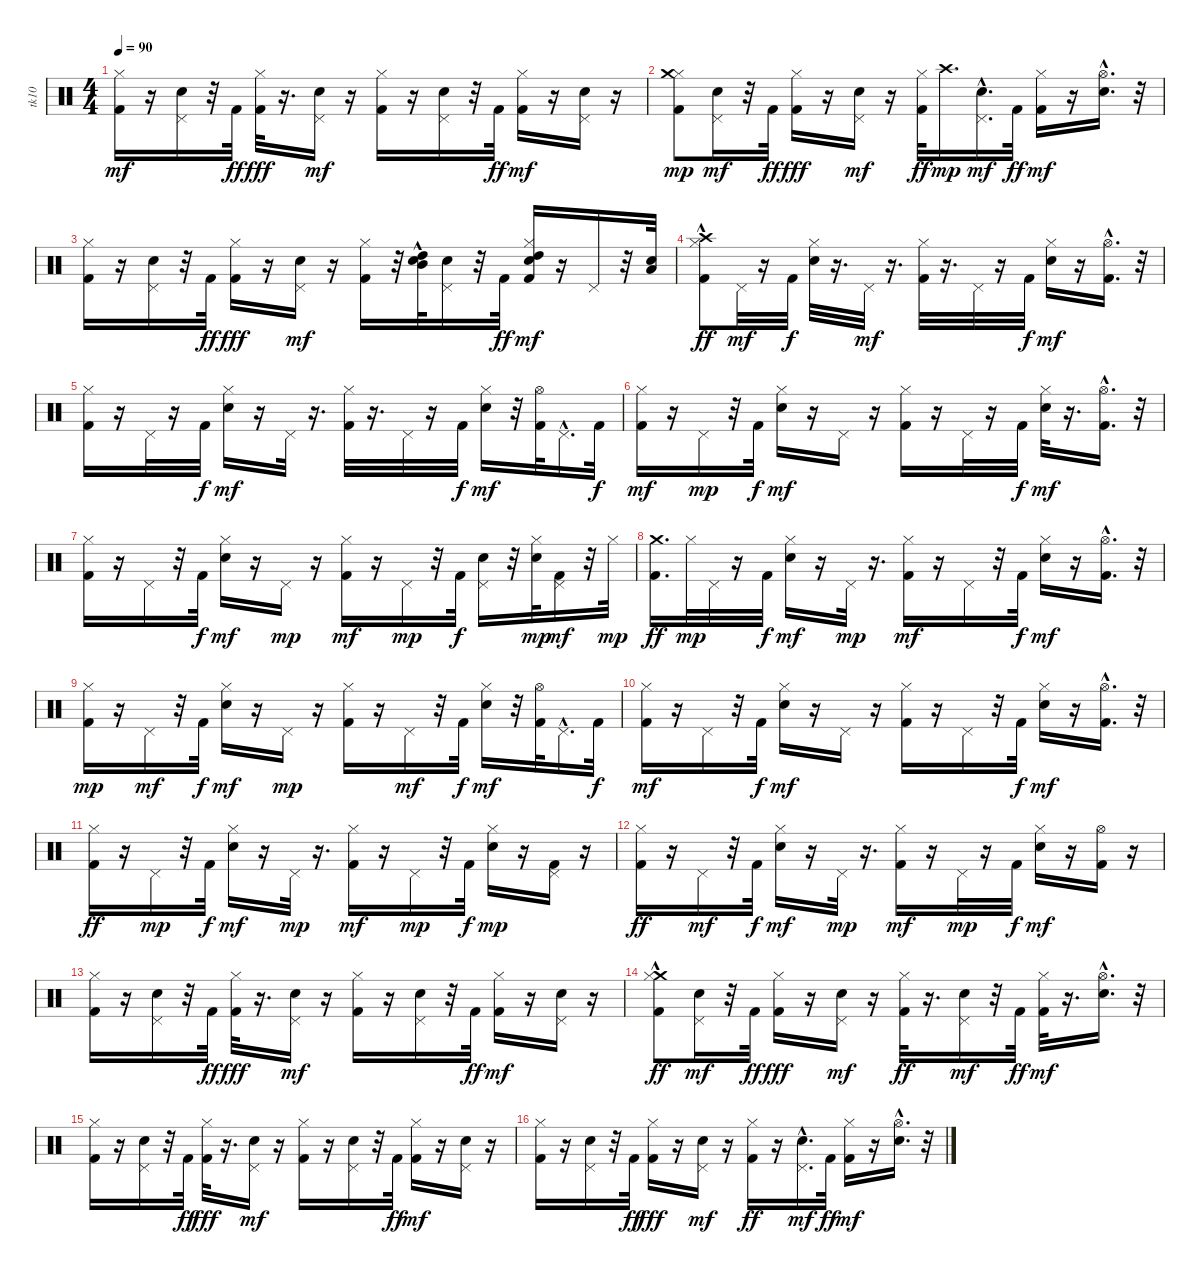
\track ("tk10" "tk10") {instrument percussion}
\staff {score}
\articulation defaults
\ts (4 4)
\tempo 90
\clef neutral
\ks c
("Kick (hit) 2" "Hi-Hat (closed)").16{dy mf} r.16 ("Electric Snare (hit)" "Pedal Hi-Hat (hit)").16 r.32 "Kick (hit) 2".32{dy ff} ("Hi-Hat (closed)" "Kick (hit) 2").32{dy fff} r.16{d} ("Electric Snare (hit)" "Pedal Hi-Hat (hit)").16{dy mf} r.16 ("Kick (hit) 2" "Hi-Hat (closed)").16 r.16 ("Electric Snare (hit)" "Pedal Hi-Hat (hit)").16 r.32 "Kick (hit) 2".32{dy ff} ("Kick (hit) 2" "Hi-Hat (closed)").16{dy mf} r.16 ("Electric Snare (hit)" "Pedal Hi-Hat (hit)").16 r.16 |
("Kick (hit) 2" "Hi-Hat (closed)" "Crash medium (hit)").8{dy mp} ("Electric Snare (hit)" "Pedal Hi-Hat (hit)").16{dy mf} r.32 "Kick (hit) 2".32{dy ff} ("Hi-Hat (closed)" "Kick (hit) 2").16{dy fff} r.16 ("Electric Snare (hit)" "Pedal Hi-Hat (hit)").16{dy mf} r.16 ("Hi-Hat (closed)" "Kick (hit) 2").32{dy ff} "Crash high (hit)".16{d dy mp} ("Electric Snare (hit)"{hac} "Pedal Hi-Hat (hit)").16{d dy mf} "Kick (hit) 2".32{dy ff} ("Kick (hit) 2" "Hi-Hat (closed)").16{dy mf} r.16 ("Electric Snare (hit)"{hac} "Hi-Hat (open)"{hac}).16{d} r.32 |
("Kick (hit) 2" "Hi-Hat (closed)").16 r.16 ("Pedal Hi-Hat (hit)" "Electric Snare (hit)").16 r.32 "Kick (hit) 2".32{dy ff} ("Hi-Hat (closed)" "Kick (hit) 2").16{dy fff} r.16 ("Electric Snare (hit)" "Pedal Hi-Hat (hit)").16{dy mf} r.16 ("Kick (hit) 2" "Hi-Hat (closed)").16 r.32 ("High Tom (hit)" "Mid Tom (hit)"{hac} "Electric Snare (hit)").32 ("Electric Snare (hit)" "Pedal Hi-Hat (hit)").16 r.32 "Kick (hit) 2".32{dy ff} ("Kick (hit) 2" "Electric Snare (hit)" "Hi-Hat (closed)" "High Tom (hit)").16{dy mf} r.16 "Pedal Hi-Hat (hit)".16 r.32 ("Low Tom (hit)" "Electric Snare (hit)").32 |
("Crash high (hit)"{hac} "Kick (hit) 2" "Hi-Hat (closed)").8{dy ff} "Pedal Hi-Hat (hit)".32{dy mf} r.16 "Kick (hit) 2".32{dy f} ("Electric Snare (hit)" "Hi-Hat (closed)").32 r.16{d} "Pedal Hi-Hat (hit)".32{dy mf} r.16{d} ("Kick (hit) 2" "Hi-Hat (closed)").32 r.16{d} "Pedal Hi-Hat (hit)".32 r.16 "Kick (hit) 2".32{dy f} ("Electric Snare (hit)" "Hi-Hat (closed)").16{dy mf} r.16 ("Kick (hit) 2" "Hi-Hat (open)"{hac}).16{d} r.32 |
("Hi-Hat (closed)" "Kick (hit) 2").16 r.16 "Pedal Hi-Hat (hit)".32 r.16 "Kick (hit) 2".32{dy f} ("Electric Snare (hit)" "Hi-Hat (closed)").16{dy mf} r.16 "Pedal Hi-Hat (hit)".32 r.16{d} ("Kick (hit) 2" "Hi-Hat (closed)").32 r.16{d} "Pedal Hi-Hat (hit)".32 r.16 "Kick (hit) 2".32{dy f} ("Electric Snare (hit)" "Hi-Hat (closed)").16{dy mf} r.32 ("Kick (hit) 2" "Hi-Hat (open)").32 "Pedal Hi-Hat (hit)"{hac}.16{d} "Kick (hit) 2".32{dy f} |
("Kick (hit) 2" "Hi-Hat (closed)").16{dy mf} r.16 "Pedal Hi-Hat (hit)".16{dy mp} r.32 "Kick (hit) 2".32{dy f} ("Electric Snare (hit)" "Hi-Hat (closed)").16{dy mf} r.16 "Pedal Hi-Hat (hit)".16 r.16 ("Hi-Hat (closed)" "Kick (hit) 2").16 r.16 "Pedal Hi-Hat (hit)".32 r.16 "Kick (hit) 2".32{dy f} ("Electric Snare (hit)" "Hi-Hat (closed)").32{dy mf} r.16{d} ("Hi-Hat (open)"{hac} "Kick (hit) 2").16{d} r.32 |
("Hi-Hat (closed)" "Kick (hit) 2").16 r.16 "Pedal Hi-Hat (hit)".16 r.32 "Kick (hit) 2".32{dy f} ("Electric Snare (hit)" "Hi-Hat (closed)").16{dy mf} r.16 "Pedal Hi-Hat (hit)".16{dy mp} r.16 ("Kick (hit) 2" "Hi-Hat (closed)").16{dy mf} r.16 "Pedal Hi-Hat (hit)".16{dy mp} r.32 "Kick (hit) 2".32{dy f} ("Electric Snare (hit)" "Pedal Hi-Hat (hit)").16 r.32 ("Electric Snare (hit)" "Hi-Hat (closed)").32{dy mp} ("Kick (hit) 2" "Pedal Hi-Hat (hit)").16{dy mf} r.32 "Hi-Hat (closed)".32{dy mp} |
("Crash medium (hit)" "Kick (hit) 2").16{d dy ff} "Hi-Hat (closed)".32{dy mp} "Pedal Hi-Hat (hit)".32 r.16 "Kick (hit) 2".32{dy f} ("Hi-Hat (closed)" "Electric Snare (hit)").16{dy mf} r.16 "Pedal Hi-Hat (hit)".32{dy mp} r.16{d} ("Hi-Hat (closed)" "Kick (hit) 2").16{dy mf} r.16 "Pedal Hi-Hat (hit)".16 r.32 "Kick (hit) 2".32{dy f} ("Hi-Hat (closed)" "Electric Snare (hit)").16{dy mf} r.16 ("Hi-Hat (open)"{hac} "Kick (hit) 2").16{d} r.32 |
("Hi-Hat (closed)" "Kick (hit) 2").16{dy mp} r.16 "Pedal Hi-Hat (hit)".16{dy mf} r.32 "Kick (hit) 2".32{dy f} ("Hi-Hat (closed)" "Electric Snare (hit)").16{dy mf} r.16 "Pedal Hi-Hat (hit)".16{dy mp} r.16 ("Kick (hit) 2" "Hi-Hat (closed)").16 r.16 "Pedal Hi-Hat (hit)".16{dy mf} r.32 "Kick (hit) 2".32{dy f} ("Electric Snare (hit)" "Hi-Hat (closed)").16{dy mf} r.32 ("Hi-Hat (open)" "Kick (hit) 2").32 "Pedal Hi-Hat (hit)"{hac}.16{d} "Kick (hit) 2".32{dy f} |
("Kick (hit) 2" "Hi-Hat (closed)").16{dy mf} r.16 "Pedal Hi-Hat (hit)".16 r.32 "Kick (hit) 2".32{dy f} ("Hi-Hat (closed)" "Electric Snare (hit)").16{dy mf} r.16 "Pedal Hi-Hat (hit)".16 r.16 ("Hi-Hat (closed)" "Kick (hit) 2").16 r.16 "Pedal Hi-Hat (hit)".16 r.32 "Kick (hit) 2".32{dy f} ("Hi-Hat (closed)" "Electric Snare (hit)").16{dy mf} r.16 ("Kick (hit) 2" "Hi-Hat (open)"{hac}).16{d} r.32 |
("Hi-Hat (closed)" "Kick (hit) 2").16{dy ff} r.16 "Pedal Hi-Hat (hit)".16{dy mp} r.32 "Kick (hit) 2".32{dy f} ("Hi-Hat (closed)" "Electric Snare (hit)").16{dy mf} r.16 "Pedal Hi-Hat (hit)".32{dy mp} r.16{d} ("Hi-Hat (closed)" "Kick (hit) 2").16{dy mf} r.16 "Pedal Hi-Hat (hit)".16{dy mp} r.32 "Kick (hit) 2".32{dy f} ("Hi-Hat (closed)" "Electric Snare (hit)").16{dy mp} r.16 ("Kick (hit) 2" "Pedal Hi-Hat (hit)").16 r.16 |
("Hi-Hat (closed)" "Kick (hit) 2").16{dy ff} r.16 "Pedal Hi-Hat (hit)".16{dy mf} r.32 "Kick (hit) 2".32{dy f} ("Hi-Hat (closed)" "Electric Snare (hit)").16{dy mf} r.16 "Pedal Hi-Hat (hit)".32{dy mp} r.16{d} ("Hi-Hat (closed)" "Kick (hit) 2").16{dy mf} r.16 "Pedal Hi-Hat (hit)".32{dy mp} r.16 "Kick (hit) 2".32{dy f} ("Hi-Hat (closed)" "Electric Snare (hit)").16{dy mf} r.16 ("Hi-Hat (open)" "Kick (hit) 2").16 r.16 |
("Kick (hit) 2" "Hi-Hat (closed)").16 r.16 ("Electric Snare (hit)" "Pedal Hi-Hat (hit)").16 r.32 "Kick (hit) 2".32{dy ff} ("Hi-Hat (closed)" "Kick (hit) 2").32{dy fff} r.16{d} ("Electric Snare (hit)" "Pedal Hi-Hat (hit)").16{dy mf} r.16 ("Kick (hit) 2" "Hi-Hat (closed)").16 r.16 ("Electric Snare (hit)" "Pedal Hi-Hat (hit)").16 r.32 "Kick (hit) 2".32{dy ff} ("Kick (hit) 2" "Hi-Hat (closed)").16{dy mf} r.16 ("Electric Snare (hit)" "Pedal Hi-Hat (hit)").16 r.16 |
("Crash medium (hit)"{hac} "Hi-Hat (closed)" "Kick (hit) 2").8{dy ff} ("Electric Snare (hit)" "Pedal Hi-Hat (hit)").16{dy mf} r.32 "Kick (hit) 2".32{dy ff} ("Kick (hit) 2" "Hi-Hat (closed)").16{dy fff} r.16 ("Electric Snare (hit)" "Pedal Hi-Hat (hit)").16{dy mf} r.16 ("Kick (hit) 2" "Hi-Hat (closed)").32{dy ff} r.16{d} ("Electric Snare (hit)" "Pedal Hi-Hat (hit)").16{dy mf} r.32 "Kick (hit) 2".32{dy ff} ("Kick (hit) 2" "Hi-Hat (closed)").32{dy mf} r.16{d} ("Electric Snare (hit)" "Hi-Hat (open)"{hac}).16{d} r.32 |
("Kick (hit) 2" "Hi-Hat (closed)").16 r.16 ("Electric Snare (hit)" "Pedal Hi-Hat (hit)").16 r.32 "Kick (hit) 2".32{dy ff} ("Hi-Hat (closed)" "Kick (hit) 2").32{dy fff} r.16{d} ("Electric Snare (hit)" "Pedal Hi-Hat (hit)").16{dy mf} r.16 ("Kick (hit) 2" "Hi-Hat (closed)").16 r.16 ("Electric Snare (hit)" "Pedal Hi-Hat (hit)").16 r.32 "Kick (hit) 2".32{dy ff} ("Kick (hit) 2" "Hi-Hat (closed)").16{dy mf} r.16 ("Electric Snare (hit)" "Pedal Hi-Hat (hit)").16 r.16 |
("Kick (hit) 2" "Hi-Hat (closed)").16 r.16 ("Electric Snare (hit)" "Pedal Hi-Hat (hit)").16 r.32 "Kick (hit) 2".32{dy ff} ("Hi-Hat (closed)" "Kick (hit) 2").16{dy fff} r.16 ("Electric Snare (hit)" "Pedal Hi-Hat (hit)").16{dy mf} r.16 ("Hi-Hat (closed)" "Kick (hit) 2").16{dy ff} r.16 ("Electric Snare (hit)"{hac} "Pedal Hi-Hat (hit)").16{d dy mf} "Kick (hit) 2".32{dy ff} ("Kick (hit) 2" "Hi-Hat (closed)").16{dy mf} r.16 ("Electric Snare (hit)"{hac} "Hi-Hat (open)"{hac}).16{d} r.32
